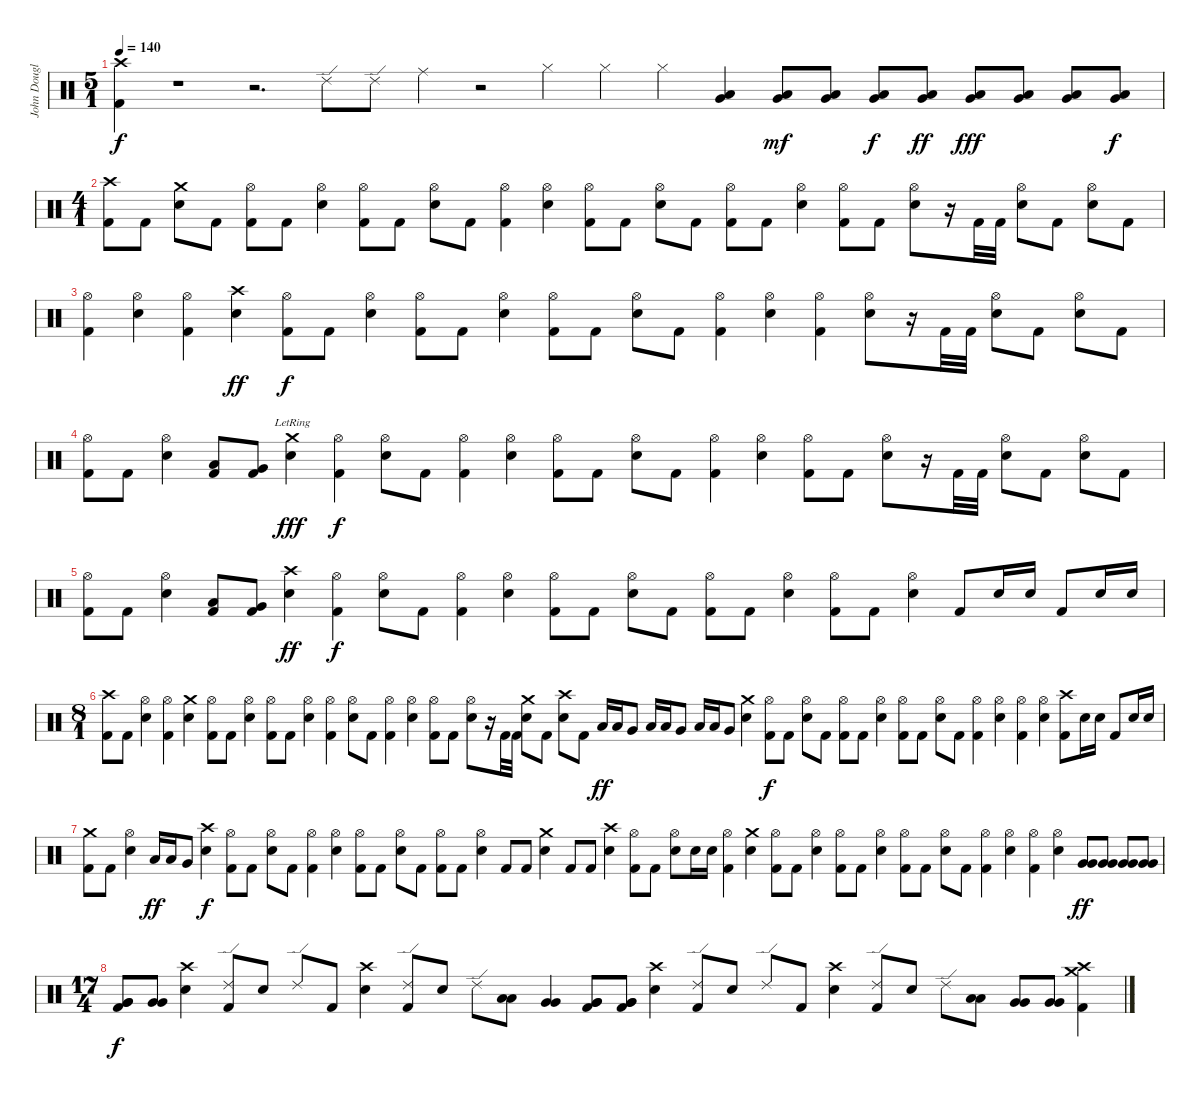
\track ("John Douglas" "John Dougl") {instrument percussion}
\staff {score}
\articulation defaults
\ts (5 1)
\tempo 140
\clef neutral
\ks c
("Crash high (hit)" "Kick (hit) 2").4{dy f} r.1 r.2{d} "Ride (edge) 2".8 "Ride (edge) 2".8 "Ride (middle)".4 r.2 "Hi-Hat (closed)".4 "Hi-Hat (closed)".4 "Hi-Hat (closed)".4 ("Low Floor Tom (hit)" "Very Low Tom (hit)").4 ("Very Low Tom (hit)" "Low Floor Tom (hit)").8{dy mf} ("Very Low Tom (hit)" "Low Floor Tom (hit)").8 ("Very Low Tom (hit)" "Low Floor Tom (hit)").8{dy f} ("Very Low Tom (hit)" "Low Floor Tom (hit)").8{dy ff} ("Very Low Tom (hit)" "Low Floor Tom (hit)").8{dy fff} ("Very Low Tom (hit)" "Low Floor Tom (hit)").8 ("Very Low Tom (hit)" "Low Floor Tom (hit)").8 ("Very Low Tom (hit)" "Low Floor Tom (hit)").8{dy f} |
\ts (4 1)
("Crash high (hit)" "Kick (hit) 2").8 "Kick (hit) 2".8 ("Crash medium (hit)" "Electric Snare (hit)").8 "Kick (hit) 2".8 ("Hi-Hat (open)" "Kick (hit) 2").8 "Kick (hit) 2".8 ("Hi-Hat (open)" "Electric Snare (hit)").4 ("Hi-Hat (open)" "Kick (hit) 2").8 "Kick (hit) 2".8 ("Hi-Hat (open)" "Electric Snare (hit)").8 "Kick (hit) 2".8 ("Hi-Hat (open)" "Kick (hit) 2").4 ("Hi-Hat (open)" "Electric Snare (hit)").4 ("Hi-Hat (open)" "Kick (hit) 2").8 "Kick (hit) 2".8 ("Hi-Hat (open)" "Electric Snare (hit)").8 "Kick (hit) 2".8 ("Hi-Hat (open)" "Kick (hit) 2").8 "Kick (hit) 2".8 ("Hi-Hat (open)" "Electric Snare (hit)").4 ("Hi-Hat (open)" "Kick (hit) 2").8 "Kick (hit) 2".8 ("Hi-Hat (open)" "Electric Snare (hit)").8 r.16 "Kick (hit) 2".32 "Kick (hit) 2".32 ("Hi-Hat (open)" "Electric Snare (hit)").8 "Kick (hit) 2".8 ("Hi-Hat (open)" "Electric Snare (hit)").8 "Kick (hit) 2".8 |
("Hi-Hat (open)" "Kick (hit) 2").4 ("Hi-Hat (open)" "Electric Snare (hit)").4 ("Hi-Hat (open)" "Kick (hit) 2").4 ("Crash high (hit)" "Electric Snare (hit)").4{dy ff} ("Hi-Hat (open)" "Kick (hit) 2").8{dy f} "Kick (hit) 2".8 ("Hi-Hat (open)" "Electric Snare (hit)").4 ("Hi-Hat (open)" "Kick (hit) 2").8 "Kick (hit) 2".8 ("Hi-Hat (open)" "Electric Snare (hit)").4 ("Hi-Hat (open)" "Kick (hit) 2").8 "Kick (hit) 2".8 ("Hi-Hat (open)" "Electric Snare (hit)").8 "Kick (hit) 2".8 ("Hi-Hat (open)" "Kick (hit) 2").4 ("Hi-Hat (open)" "Electric Snare (hit)").4 ("Hi-Hat (open)" "Kick (hit) 2").4 ("Hi-Hat (open)" "Electric Snare (hit)").8 r.16 "Kick (hit) 2".32 "Kick (hit) 2".32 ("Hi-Hat (open)" "Electric Snare (hit)").8 "Kick (hit) 2".8 ("Hi-Hat (open)" "Electric Snare (hit)").8 "Kick (hit) 2".8 |
("Hi-Hat (open)" "Kick (hit) 2").8 "Kick (hit) 2".8 ("Hi-Hat (open)" "Electric Snare (hit)").4 ("Low Tom (hit)" "Kick (hit) 2").8 ("Very Low Tom (hit)" "Kick (hit) 2").8 ("Crash medium (hit)"{lr} "Electric Snare (hit)").4{dy fff} ("Hi-Hat (open)" "Kick (hit) 2").4{dy f} ("Hi-Hat (open)" "Electric Snare (hit)").8 "Kick (hit) 2".8 ("Hi-Hat (open)" "Kick (hit) 2").4 ("Hi-Hat (open)" "Electric Snare (hit)").4 ("Hi-Hat (open)" "Kick (hit) 2").8 "Kick (hit) 2".8 ("Hi-Hat (open)" "Electric Snare (hit)").8 "Kick (hit) 2".8 ("Hi-Hat (open)" "Kick (hit) 2").4 ("Hi-Hat (open)" "Electric Snare (hit)").4 ("Hi-Hat (open)" "Kick (hit) 2").8 "Kick (hit) 2".8 ("Hi-Hat (open)" "Electric Snare (hit)").8 r.16 "Kick (hit) 2".32 "Kick (hit) 2".32 ("Hi-Hat (open)" "Electric Snare (hit)").8 "Kick (hit) 2".8 ("Hi-Hat (open)" "Electric Snare (hit)").8 "Kick (hit) 2".8 |
("Hi-Hat (open)" "Kick (hit) 2").8 "Kick (hit) 2".8 ("Hi-Hat (open)" "Electric Snare (hit)").4 ("Low Tom (hit)" "Kick (hit) 2").8 ("Very Low Tom (hit)" "Kick (hit) 2").8 ("Crash high (hit)" "Electric Snare (hit)").4{dy ff} ("Hi-Hat (open)" "Kick (hit) 2").4{dy f} ("Hi-Hat (open)" "Electric Snare (hit)").8 "Kick (hit) 2".8 ("Hi-Hat (open)" "Kick (hit) 2").4 ("Hi-Hat (open)" "Electric Snare (hit)").4 ("Hi-Hat (open)" "Kick (hit) 2").8 "Kick (hit) 2".8 ("Hi-Hat (open)" "Electric Snare (hit)").8 "Kick (hit) 2".8 ("Hi-Hat (open)" "Kick (hit) 2").8 "Kick (hit) 2".8 ("Hi-Hat (open)" "Electric Snare (hit)").4 ("Hi-Hat (open)" "Kick (hit) 2").8 "Kick (hit) 2".8 ("Hi-Hat (open)" "Electric Snare (hit)").4 "Kick (hit) 2".8 "Electric Snare (hit)".16 "Electric Snare (hit)".16 "Kick (hit) 2".8 "Electric Snare (hit)".16 "Electric Snare (hit)".16 |
\ts (8 1)
("Crash high (hit)" "Kick (hit) 2").8 "Kick (hit) 2".8 ("Hi-Hat (open)" "Electric Snare (hit)").4 ("Hi-Hat (open)" "Kick (hit) 2").4 ("Crash medium (hit)" "Electric Snare (hit)").4 ("Hi-Hat (open)" "Kick (hit) 2").8 "Kick (hit) 2".8 ("Hi-Hat (open)" "Electric Snare (hit)").4 ("Hi-Hat (open)" "Kick (hit) 2").8 "Kick (hit) 2".8 ("Hi-Hat (open)" "Electric Snare (hit)").4 ("Hi-Hat (open)" "Kick (hit) 2").4 ("Hi-Hat (open)" "Electric Snare (hit)").8 "Kick (hit) 2".8 ("Hi-Hat (open)" "Kick (hit) 2").4 ("Hi-Hat (open)" "Electric Snare (hit)").4 ("Hi-Hat (open)" "Kick (hit) 2").8 "Kick (hit) 2".8 ("Hi-Hat (open)" "Electric Snare (hit)").8 r.16 "Kick (hit) 2".32 "Kick (hit) 2".32 ("Crash medium (hit)" "Electric Snare (hit)").8 "Kick (hit) 2".8 ("Crash high (hit)" "Electric Snare (hit)").8 "Kick (hit) 2".8 "Low Tom (hit)".16{dy ff} "Low Tom (hit)".16 "Very Low Tom (hit)".8 "Low Tom (hit)".16 "Low Tom (hit)".16 "Very Low Tom (hit)".8 "Low Tom (hit)".16 "Low Tom (hit)".16 "Very Low Tom (hit)".8 ("Crash medium (hit)" "Electric Snare (hit)").4 ("Hi-Hat (open)" "Kick (hit) 2").8{dy f} "Kick (hit) 2".8 ("Hi-Hat (open)" "Electric Snare (hit)").8 "Kick (hit) 2".8 ("Hi-Hat (open)" "Kick (hit) 2").8 "Kick (hit) 2".8 ("Hi-Hat (open)" "Electric Snare (hit)").4 ("Hi-Hat (open)" "Kick (hit) 2").8 "Kick (hit) 2".8 ("Hi-Hat (open)" "Electric Snare (hit)").8 "Kick (hit) 2".8 ("Hi-Hat (open)" "Kick (hit) 2").4 ("Hi-Hat (open)" "Electric Snare (hit)").4 ("Hi-Hat (open)" "Kick (hit) 2").4 ("Hi-Hat (open)" "Electric Snare (hit)").4 ("Crash high (hit)" "Kick (hit) 2").8 "Electric Snare (hit)".16 "Electric Snare (hit)".16 "Kick (hit) 2".8 "Electric Snare (hit)".16 "Electric Snare (hit)".16 |
("Crash medium (hit)" "Kick (hit) 2").8 "Kick (hit) 2".8 ("Hi-Hat (open)" "Electric Snare (hit)").4 "Low Tom (hit)".16{dy ff} "Low Tom (hit)".16 "Very Low Tom (hit)".8 ("Crash high (hit)" "Electric Snare (hit)").4{dy f} ("Hi-Hat (open)" "Kick (hit) 2").8 "Kick (hit) 2".8 ("Hi-Hat (open)" "Electric Snare (hit)").8 "Kick (hit) 2".8 ("Hi-Hat (open)" "Kick (hit) 2").4 ("Hi-Hat (open)" "Electric Snare (hit)").4 ("Hi-Hat (open)" "Kick (hit) 2").8 "Kick (hit) 2".8 ("Hi-Hat (open)" "Electric Snare (hit)").8 "Kick (hit) 2".8 ("Hi-Hat (open)" "Kick (hit) 2").8 "Kick (hit) 2".8 ("Hi-Hat (open)" "Electric Snare (hit)").4 "Kick (hit) 2".8 "Kick (hit) 2".8 ("Crash medium (hit)" "Electric Snare (hit)").4 "Kick (hit) 2".8 "Kick (hit) 2".8 ("Crash high (hit)" "Electric Snare (hit)").4 ("Hi-Hat (open)" "Kick (hit) 2").8 "Kick (hit) 2".8 ("Hi-Hat (open)" "Electric Snare (hit)").8 "Electric Snare (hit)".16 "Electric Snare (hit)".16 ("Hi-Hat (open)" "Kick (hit) 2").4 ("Crash medium (hit)" "Electric Snare (hit)").4 ("Hi-Hat (open)" "Kick (hit) 2").8 "Kick (hit) 2".8 ("Hi-Hat (open)" "Electric Snare (hit)").4 ("Hi-Hat (open)" "Kick (hit) 2").8 "Kick (hit) 2".8 ("Hi-Hat (open)" "Electric Snare (hit)").4 ("Hi-Hat (open)" "Kick (hit) 2").8 "Kick (hit) 2".8 ("Hi-Hat (open)" "Electric Snare (hit)").8 "Kick (hit) 2".8 ("Hi-Hat (open)" "Kick (hit) 2").4 ("Hi-Hat (open)" "Electric Snare (hit)").4 ("Hi-Hat (open)" "Kick (hit) 2").4 ("Hi-Hat (open)" "Electric Snare (hit)").4 ("Very Low Tom (hit)" "Very Low Tom (hit)").8{dy ff} ("Very Low Tom (hit)" "Very Low Tom (hit)").8 ("Very Low Tom (hit)" "Very Low Tom (hit)").8 ("Very Low Tom (hit)" "Very Low Tom (hit)").8 |
\ts (17 4)
("Very Low Tom (hit)" "Very Low Tom (hit)" "Kick (hit) 2").8{dy f} ("Very Low Tom (hit)" "Very Low Tom (hit)").8 ("Crash high (hit)" "Electric Snare (hit)").4 ("Ride (edge) 2" "Kick (hit) 2").8 "Electric Snare (hit)".8 "Ride (edge) 2".8 "Kick (hit) 2".8 ("Crash high (hit)" "Electric Snare (hit)").4 ("Ride (edge) 2" "Kick (hit) 2").8 "Electric Snare (hit)".8 "Ride (edge) 2".8 ("Low Tom (hit)" "Low Tom (hit)").8 ("Very Low Tom (hit)" "Very Low Tom (hit)").4 ("Very Low Tom (hit)" "Very Low Tom (hit)" "Kick (hit) 2").8 ("Very Low Tom (hit)" "Very Low Tom (hit)" "Kick (hit) 2").8 ("Crash high (hit)" "Electric Snare (hit)").4 ("Ride (edge) 2" "Kick (hit) 2").8 "Electric Snare (hit)".8 "Ride (edge) 2".8 "Kick (hit) 2".8 ("Crash high (hit)" "Electric Snare (hit)").4 ("Ride (edge) 2" "Kick (hit) 2").8 "Electric Snare (hit)".8 "Ride (edge) 2".8 ("Low Tom (hit)" "Low Tom (hit)").8 ("Very Low Tom (hit)" "Very Low Tom (hit)").8 ("Very Low Tom (hit)" "Very Low Tom (hit)").8 ("Crash high (hit)" "Crash medium (hit)" "Kick (hit) 2").4
